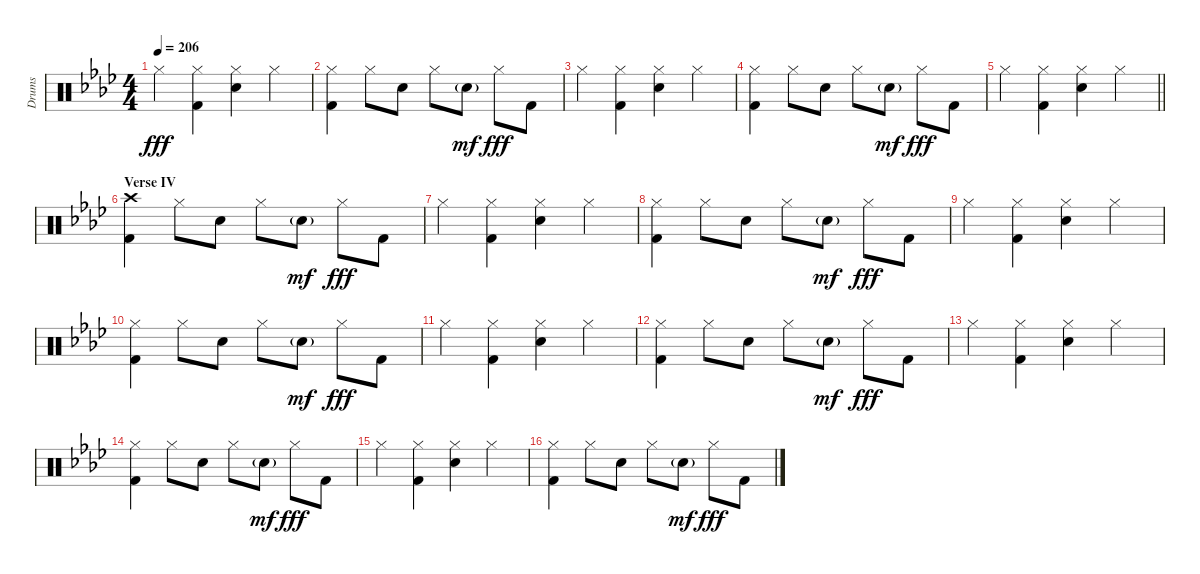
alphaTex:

\track ("Drums" "Drums") {instrument percussion}
\staff {score}
\articulation defaults
\ts (4 4)
\tempo 206
\clef neutral
\ks ab "Hi-Hat (closed)".4{dy fff}
("Hi-Hat (closed)" "Kick (hit) 2").4 ("Hi-Hat (closed)" "Electric Snare (hit)").4 "Hi-Hat (closed)".4 |
("Hi-Hat (closed)" "Kick (hit) 2").4 "Hi-Hat (closed)".8 "Electric Snare (hit)".8 "Hi-Hat (closed)".8 "Electric Snare (hit)"{g}.8{dy mf} "Hi-Hat (closed)".8{dy fff} "Kick (hit) 2".8 |
"Hi-Hat (closed)".4 ("Hi-Hat (closed)" "Kick (hit) 2").4 ("Hi-Hat (closed)" "Electric Snare (hit)").4 "Hi-Hat (closed)".4 |
("Hi-Hat (closed)" "Kick (hit) 2").4 "Hi-Hat (closed)".8 "Electric Snare (hit)".8 "Hi-Hat (closed)".8 "Electric Snare (hit)"{g}.8{dy mf} "Hi-Hat (closed)".8{dy fff} "Kick (hit) 2".8 |
\barLineRight lightlight "Hi-Hat (closed)".4
("Hi-Hat (closed)" "Kick (hit) 2").4 ("Hi-Hat (closed)" "Electric Snare (hit)").4 "Hi-Hat (closed)".4 |
\section ("" "Verse IV")
("Crash high (hit)" "Kick (hit) 2").4 "Hi-Hat (closed)".8 "Electric Snare (hit)".8 "Hi-Hat (closed)".8 "Electric Snare (hit)"{g}.8{dy mf} "Hi-Hat (closed)".8{dy fff} "Kick (hit) 2".8 |
"Hi-Hat (closed)".4 ("Hi-Hat (closed)" "Kick (hit) 2").4 ("Hi-Hat (closed)" "Electric Snare (hit)").4 "Hi-Hat (closed)".4 |
("Hi-Hat (closed)" "Kick (hit) 2").4 "Hi-Hat (closed)".8 "Electric Snare (hit)".8 "Hi-Hat (closed)".8 "Electric Snare (hit)"{g}.8{dy mf} "Hi-Hat (closed)".8{dy fff} "Kick (hit) 2".8 |
"Hi-Hat (closed)".4 ("Hi-Hat (closed)" "Kick (hit) 2").4 ("Hi-Hat (closed)" "Electric Snare (hit)").4 "Hi-Hat (closed)".4 |
("Hi-Hat (closed)" "Kick (hit) 2").4 "Hi-Hat (closed)".8 "Electric Snare (hit)".8 "Hi-Hat (closed)".8 "Electric Snare (hit)"{g}.8{dy mf} "Hi-Hat (closed)".8{dy fff} "Kick (hit) 2".8 |
"Hi-Hat (closed)".4 ("Hi-Hat (closed)" "Kick (hit) 2").4 ("Hi-Hat (closed)" "Electric Snare (hit)").4 "Hi-Hat (closed)".4 |
("Hi-Hat (closed)" "Kick (hit) 2").4 "Hi-Hat (closed)".8 "Electric Snare (hit)".8 "Hi-Hat (closed)".8 "Electric Snare (hit)"{g}.8{dy mf} "Hi-Hat (closed)".8{dy fff} "Kick (hit) 2".8 |
"Hi-Hat (closed)".4 ("Hi-Hat (closed)" "Kick (hit) 2").4 ("Hi-Hat (closed)" "Electric Snare (hit)").4 "Hi-Hat (closed)".4 |
("Hi-Hat (closed)" "Kick (hit) 2").4 "Hi-Hat (closed)".8 "Electric Snare (hit)".8 "Hi-Hat (closed)".8 "Electric Snare (hit)"{g}.8{dy mf} "Hi-Hat (closed)".8{dy fff} "Kick (hit) 2".8 |
"Hi-Hat (closed)".4 ("Hi-Hat (closed)" "Kick (hit) 2").4 ("Hi-Hat (closed)" "Electric Snare (hit)").4 "Hi-Hat (closed)".4 |
("Hi-Hat (closed)" "Kick (hit) 2").4 "Hi-Hat (closed)".8 "Electric Snare (hit)".8 "Hi-Hat (closed)".8 "Electric Snare (hit)"{g}.8{dy mf} "Hi-Hat (closed)".8{dy fff} "Kick (hit) 2".8
